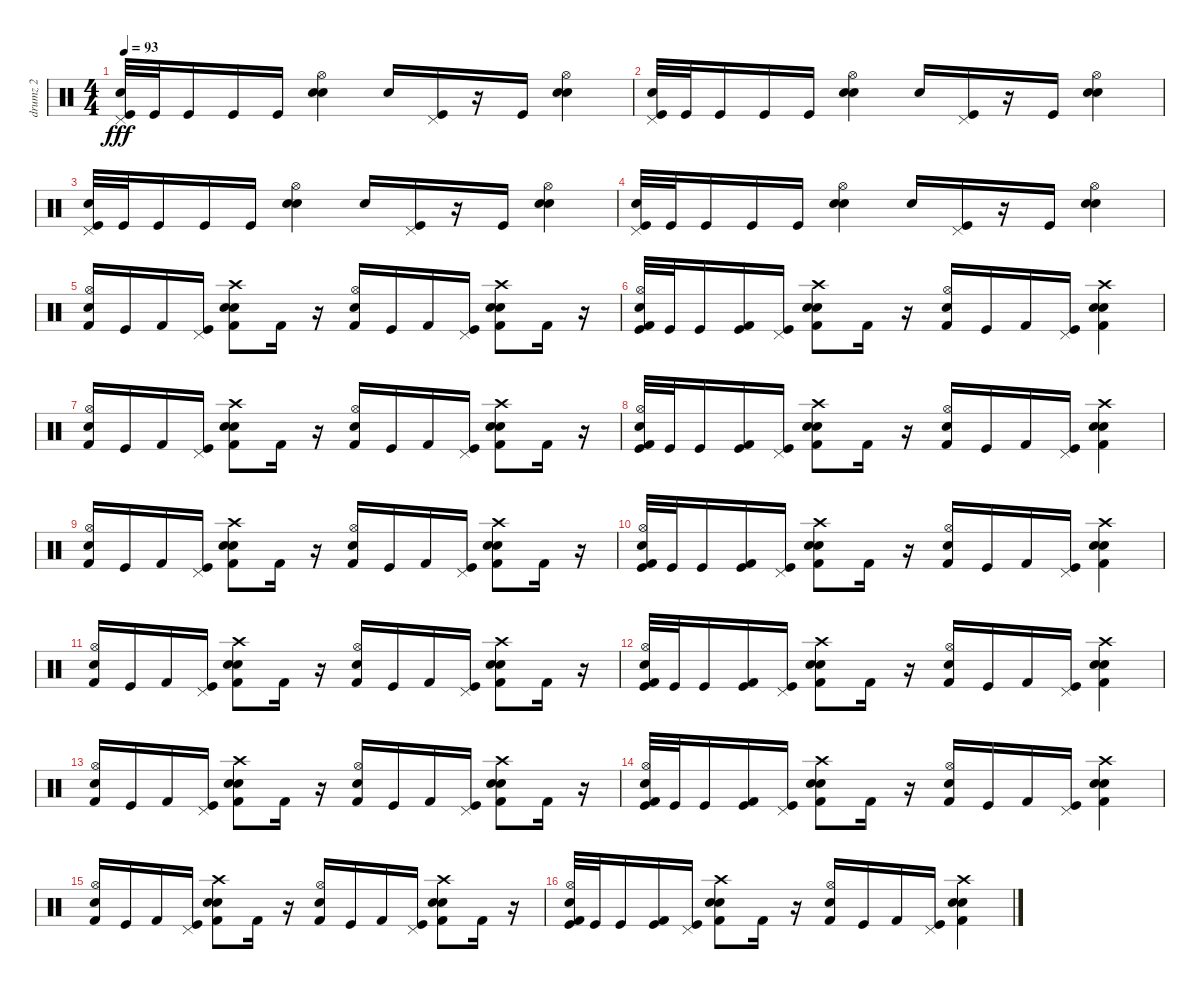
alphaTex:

\track ("drumz 2" "drumz 2") {instrument percussion}
\staff {score}
\articulation defaults
\ts (4 4)
\tempo 93
\clef neutral
\ks c
("Kick (hit)" "Pedal Hi-Hat (hit)" "Hand Clap (hit)").32{dy fff} "Kick (hit)".32 "Kick (hit)".16 "Kick (hit)".16 "Kick (hit)".16 ("Snare (hit) 2" "Hi-Hat (open)" "Hand Clap (hit)").4 "Hand Clap (hit)".16 ("Kick (hit)" "Pedal Hi-Hat (hit)").16 r.16 "Kick (hit)".16 ("Snare (hit) 2" "Hi-Hat (open)" "Hand Clap (hit)").4 |
("Kick (hit)" "Pedal Hi-Hat (hit)" "Hand Clap (hit)").32 "Kick (hit)".32 "Kick (hit)".16 "Kick (hit)".16 "Kick (hit)".16 ("Snare (hit) 2" "Hi-Hat (open)" "Hand Clap (hit)").4 "Hand Clap (hit)".16 ("Kick (hit)" "Pedal Hi-Hat (hit)").16 r.16 "Kick (hit)".16 ("Snare (hit) 2" "Hi-Hat (open)" "Hand Clap (hit)").4 |
("Kick (hit)" "Pedal Hi-Hat (hit)" "Hand Clap (hit)").32 "Kick (hit)".32 "Kick (hit)".16 "Kick (hit)".16 "Kick (hit)".16 ("Snare (hit) 2" "Hi-Hat (open)" "Hand Clap (hit)").4 "Hand Clap (hit)".16 ("Kick (hit)" "Pedal Hi-Hat (hit)").16 r.16 "Kick (hit)".16 ("Snare (hit) 2" "Hi-Hat (open)" "Hand Clap (hit)").4 |
("Kick (hit)" "Pedal Hi-Hat (hit)" "Hand Clap (hit)").32 "Kick (hit)".32 "Kick (hit)".16 "Kick (hit)".16 "Kick (hit)".16 ("Snare (hit) 2" "Hi-Hat (open)" "Hand Clap (hit)").4 "Hand Clap (hit)".16 ("Kick (hit)" "Pedal Hi-Hat (hit)").16 r.16 "Kick (hit)".16 ("Snare (hit) 2" "Hi-Hat (open)" "Hand Clap (hit)").4 |
("Hi-Hat (open)" "Hand Clap (hit)" "Kick (hit) 2").16 "Kick (hit)".16 "Kick (hit) 2".16 ("Kick (hit)" "Pedal Hi-Hat (hit)").16 ("Snare (hit) 2" "Crash high (hit)" "Hand Clap (hit)" "Kick (hit) 2").8 "Kick (hit) 2".16 r.16 ("Hi-Hat (open)" "Hand Clap (hit)" "Kick (hit) 2").16 "Kick (hit)".16 "Kick (hit) 2".16 ("Kick (hit)" "Pedal Hi-Hat (hit)").16 ("Snare (hit) 2" "Crash high (hit)" "Hand Clap (hit)" "Kick (hit) 2").8 "Kick (hit) 2".16 r.16 |
("Kick (hit)" "Hand Clap (hit)" "Hi-Hat (open)" "Kick (hit) 2").32 "Kick (hit)".32 "Kick (hit)".16 ("Kick (hit)" "Kick (hit) 2").16 ("Kick (hit)" "Pedal Hi-Hat (hit)").16 ("Snare (hit) 2" "Hand Clap (hit)" "Crash high (hit)" "Kick (hit) 2").8 "Kick (hit) 2".16 r.16 ("Hand Clap (hit)" "Hi-Hat (open)" "Kick (hit) 2").16 "Kick (hit)".16 "Kick (hit) 2".16 ("Kick (hit)" "Pedal Hi-Hat (hit)").16 ("Snare (hit) 2" "Hand Clap (hit)" "Crash high (hit)" "Kick (hit) 2").4 |
("Hi-Hat (open)" "Hand Clap (hit)" "Kick (hit) 2").16 "Kick (hit)".16 "Kick (hit) 2".16 ("Kick (hit)" "Pedal Hi-Hat (hit)").16 ("Snare (hit) 2" "Crash high (hit)" "Hand Clap (hit)" "Kick (hit) 2").8 "Kick (hit) 2".16 r.16 ("Hi-Hat (open)" "Hand Clap (hit)" "Kick (hit) 2").16 "Kick (hit)".16 "Kick (hit) 2".16 ("Kick (hit)" "Pedal Hi-Hat (hit)").16 ("Snare (hit) 2" "Crash high (hit)" "Hand Clap (hit)" "Kick (hit) 2").8 "Kick (hit) 2".16 r.16 |
("Kick (hit)" "Hand Clap (hit)" "Hi-Hat (open)" "Kick (hit) 2").32 "Kick (hit)".32 "Kick (hit)".16 ("Kick (hit)" "Kick (hit) 2").16 ("Kick (hit)" "Pedal Hi-Hat (hit)").16 ("Snare (hit) 2" "Hand Clap (hit)" "Crash high (hit)" "Kick (hit) 2").8 "Kick (hit) 2".16 r.16 ("Hand Clap (hit)" "Hi-Hat (open)" "Kick (hit) 2").16 "Kick (hit)".16 "Kick (hit) 2".16 ("Kick (hit)" "Pedal Hi-Hat (hit)").16 ("Snare (hit) 2" "Hand Clap (hit)" "Crash high (hit)" "Kick (hit) 2").4 |
("Hi-Hat (open)" "Hand Clap (hit)" "Kick (hit) 2").16 "Kick (hit)".16 "Kick (hit) 2".16 ("Kick (hit)" "Pedal Hi-Hat (hit)").16 ("Snare (hit) 2" "Crash high (hit)" "Hand Clap (hit)" "Kick (hit) 2").8 "Kick (hit) 2".16 r.16 ("Hi-Hat (open)" "Hand Clap (hit)" "Kick (hit) 2").16 "Kick (hit)".16 "Kick (hit) 2".16 ("Kick (hit)" "Pedal Hi-Hat (hit)").16 ("Snare (hit) 2" "Crash high (hit)" "Hand Clap (hit)" "Kick (hit) 2").8 "Kick (hit) 2".16 r.16 |
("Kick (hit)" "Hand Clap (hit)" "Hi-Hat (open)" "Kick (hit) 2").32 "Kick (hit)".32 "Kick (hit)".16 ("Kick (hit)" "Kick (hit) 2").16 ("Kick (hit)" "Pedal Hi-Hat (hit)").16 ("Snare (hit) 2" "Hand Clap (hit)" "Crash high (hit)" "Kick (hit) 2").8 "Kick (hit) 2".16 r.16 ("Hand Clap (hit)" "Hi-Hat (open)" "Kick (hit) 2").16 "Kick (hit)".16 "Kick (hit) 2".16 ("Kick (hit)" "Pedal Hi-Hat (hit)").16 ("Snare (hit) 2" "Hand Clap (hit)" "Crash high (hit)" "Kick (hit) 2").4 |
("Hi-Hat (open)" "Hand Clap (hit)" "Kick (hit) 2").16 "Kick (hit)".16 "Kick (hit) 2".16 ("Kick (hit)" "Pedal Hi-Hat (hit)").16 ("Snare (hit) 2" "Crash high (hit)" "Hand Clap (hit)" "Kick (hit) 2").8 "Kick (hit) 2".16 r.16 ("Hi-Hat (open)" "Hand Clap (hit)" "Kick (hit) 2").16 "Kick (hit)".16 "Kick (hit) 2".16 ("Kick (hit)" "Pedal Hi-Hat (hit)").16 ("Snare (hit) 2" "Crash high (hit)" "Hand Clap (hit)" "Kick (hit) 2").8 "Kick (hit) 2".16 r.16 |
("Kick (hit)" "Hand Clap (hit)" "Hi-Hat (open)" "Kick (hit) 2").32 "Kick (hit)".32 "Kick (hit)".16 ("Kick (hit)" "Kick (hit) 2").16 ("Kick (hit)" "Pedal Hi-Hat (hit)").16 ("Snare (hit) 2" "Hand Clap (hit)" "Crash high (hit)" "Kick (hit) 2").8 "Kick (hit) 2".16 r.16 ("Hand Clap (hit)" "Hi-Hat (open)" "Kick (hit) 2").16 "Kick (hit)".16 "Kick (hit) 2".16 ("Kick (hit)" "Pedal Hi-Hat (hit)").16 ("Snare (hit) 2" "Hand Clap (hit)" "Crash high (hit)" "Kick (hit) 2").4 |
("Hi-Hat (open)" "Hand Clap (hit)" "Kick (hit) 2").16 "Kick (hit)".16 "Kick (hit) 2".16 ("Kick (hit)" "Pedal Hi-Hat (hit)").16 ("Snare (hit) 2" "Crash high (hit)" "Hand Clap (hit)" "Kick (hit) 2").8 "Kick (hit) 2".16 r.16 ("Hi-Hat (open)" "Hand Clap (hit)" "Kick (hit) 2").16 "Kick (hit)".16 "Kick (hit) 2".16 ("Kick (hit)" "Pedal Hi-Hat (hit)").16 ("Snare (hit) 2" "Crash high (hit)" "Hand Clap (hit)" "Kick (hit) 2").8 "Kick (hit) 2".16 r.16 |
("Kick (hit)" "Hand Clap (hit)" "Hi-Hat (open)" "Kick (hit) 2").32 "Kick (hit)".32 "Kick (hit)".16 ("Kick (hit)" "Kick (hit) 2").16 ("Kick (hit)" "Pedal Hi-Hat (hit)").16 ("Snare (hit) 2" "Hand Clap (hit)" "Crash high (hit)" "Kick (hit) 2").8 "Kick (hit) 2".16 r.16 ("Hand Clap (hit)" "Hi-Hat (open)" "Kick (hit) 2").16 "Kick (hit)".16 "Kick (hit) 2".16 ("Kick (hit)" "Pedal Hi-Hat (hit)").16 ("Snare (hit) 2" "Hand Clap (hit)" "Crash high (hit)" "Kick (hit) 2").4 |
("Hi-Hat (open)" "Hand Clap (hit)" "Kick (hit) 2").16 "Kick (hit)".16 "Kick (hit) 2".16 ("Kick (hit)" "Pedal Hi-Hat (hit)").16 ("Snare (hit) 2" "Crash high (hit)" "Hand Clap (hit)" "Kick (hit) 2").8 "Kick (hit) 2".16 r.16 ("Hi-Hat (open)" "Hand Clap (hit)" "Kick (hit) 2").16 "Kick (hit)".16 "Kick (hit) 2".16 ("Kick (hit)" "Pedal Hi-Hat (hit)").16 ("Snare (hit) 2" "Crash high (hit)" "Hand Clap (hit)" "Kick (hit) 2").8 "Kick (hit) 2".16 r.16 |
("Kick (hit)" "Hand Clap (hit)" "Hi-Hat (open)" "Kick (hit) 2").32 "Kick (hit)".32 "Kick (hit)".16 ("Kick (hit)" "Kick (hit) 2").16 ("Kick (hit)" "Pedal Hi-Hat (hit)").16 ("Snare (hit) 2" "Hand Clap (hit)" "Crash high (hit)" "Kick (hit) 2").8 "Kick (hit) 2".16 r.16 ("Hand Clap (hit)" "Hi-Hat (open)" "Kick (hit) 2").16 "Kick (hit)".16 "Kick (hit) 2".16 ("Kick (hit)" "Pedal Hi-Hat (hit)").16 ("Snare (hit) 2" "Hand Clap (hit)" "Crash high (hit)" "Kick (hit) 2").4
